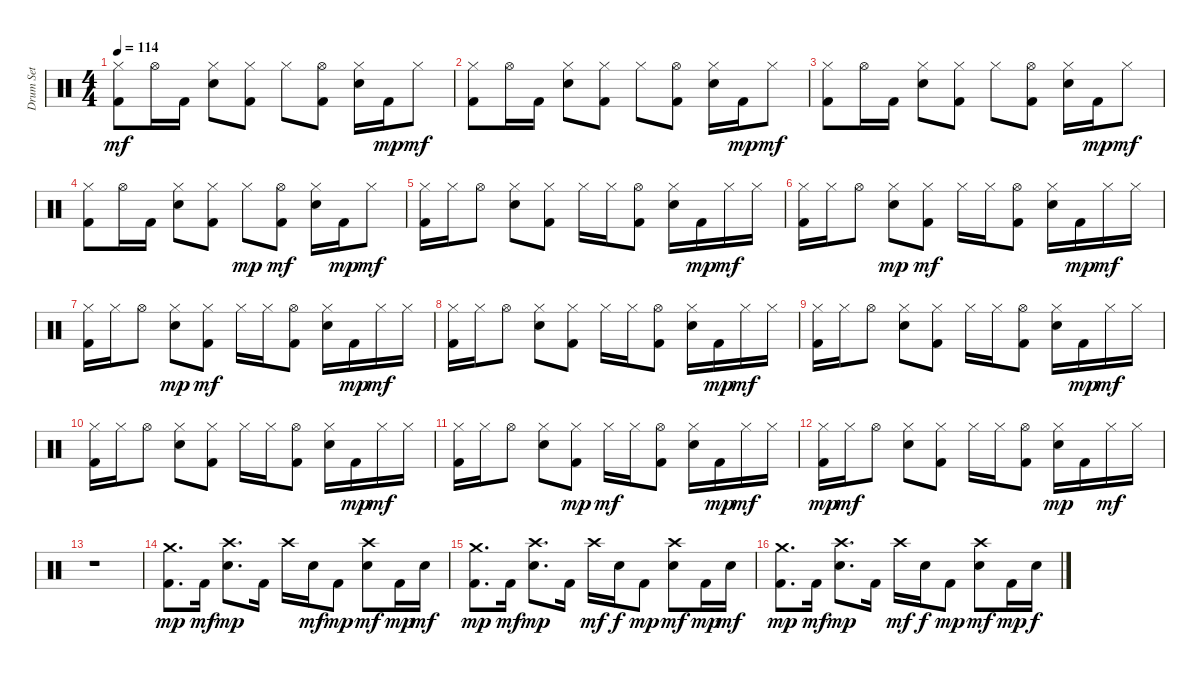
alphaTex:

\track ("Drum Set" "Drum Set") {instrument percussion}
\staff {score}
\articulation defaults
\ts (4 4)
\tempo 114
\clef neutral
\ks c
("Kick (hit) 2" "Hi-Hat (closed)").8{dy mf} "Hi-Hat (open)".16 "Kick (hit) 2".16 ("Snare (hit) 2" "Hi-Hat (closed)").8 ("Kick (hit) 2" "Hi-Hat (closed)").8 "Hi-Hat (closed)".8 ("Kick (hit) 2" "Hi-Hat (open)").8 ("Snare (hit) 2" "Hi-Hat (closed)").16 "Kick (hit) 2".16{dy mp} "Hi-Hat (closed)".8{dy mf} |
("Kick (hit) 2" "Hi-Hat (closed)").8 "Hi-Hat (open)".16 "Kick (hit) 2".16 ("Snare (hit) 2" "Hi-Hat (closed)").8 ("Kick (hit) 2" "Hi-Hat (closed)").8 "Hi-Hat (closed)".8 ("Kick (hit) 2" "Hi-Hat (open)").8 ("Snare (hit) 2" "Hi-Hat (closed)").16 "Kick (hit) 2".16{dy mp} "Hi-Hat (closed)".8{dy mf} |
("Kick (hit) 2" "Hi-Hat (closed)").8 "Hi-Hat (open)".16 "Kick (hit) 2".16 ("Snare (hit) 2" "Hi-Hat (closed)").8 ("Kick (hit) 2" "Hi-Hat (closed)").8 "Hi-Hat (closed)".8 ("Kick (hit) 2" "Hi-Hat (open)").8 ("Snare (hit) 2" "Hi-Hat (closed)").16 "Kick (hit) 2".16{dy mp} "Hi-Hat (closed)".8{dy mf} |
("Kick (hit) 2" "Hi-Hat (closed)").8 "Hi-Hat (open)".16 "Kick (hit) 2".16 ("Snare (hit) 2" "Hi-Hat (closed)").8 ("Kick (hit) 2" "Hi-Hat (closed)").8 "Hi-Hat (closed)".8{dy mp} ("Kick (hit) 2" "Hi-Hat (open)").8{dy mf} ("Snare (hit) 2" "Hi-Hat (closed)").16 "Kick (hit) 2".16{dy mp} "Hi-Hat (closed)".8{dy mf} |
("Kick (hit) 2" "Hi-Hat (closed)").16 "Hi-Hat (closed)".16 "Hi-Hat (open)".8 ("Snare (hit) 2" "Hi-Hat (closed)").8 ("Kick (hit) 2" "Hi-Hat (closed)").8 "Hi-Hat (closed)".16 "Hi-Hat (closed)".16 ("Kick (hit) 2" "Hi-Hat (open)").8 ("Snare (hit) 2" "Hi-Hat (closed)").16 "Kick (hit) 2".16{dy mp} "Hi-Hat (closed)".16{dy mf} "Hi-Hat (closed)".16 |
("Kick (hit) 2" "Hi-Hat (closed)").16 "Hi-Hat (closed)".16 "Hi-Hat (open)".8 ("Snare (hit) 2" "Hi-Hat (closed)").8{dy mp} ("Kick (hit) 2" "Hi-Hat (closed)").8{dy mf} "Hi-Hat (closed)".16 "Hi-Hat (closed)".16 ("Kick (hit) 2" "Hi-Hat (open)").8 ("Snare (hit) 2" "Hi-Hat (closed)").16 "Kick (hit) 2".16{dy mp} "Hi-Hat (closed)".16{dy mf} "Hi-Hat (closed)".16 |
("Kick (hit) 2" "Hi-Hat (closed)").16 "Hi-Hat (closed)".16 "Hi-Hat (open)".8 ("Snare (hit) 2" "Hi-Hat (closed)").8{dy mp} ("Kick (hit) 2" "Hi-Hat (closed)").8{dy mf} "Hi-Hat (closed)".16 "Hi-Hat (closed)".16 ("Kick (hit) 2" "Hi-Hat (open)").8 ("Snare (hit) 2" "Hi-Hat (closed)").16 "Kick (hit) 2".16{dy mp} "Hi-Hat (closed)".16{dy mf} "Hi-Hat (closed)".16 |
("Kick (hit) 2" "Hi-Hat (closed)").16 "Hi-Hat (closed)".16 "Hi-Hat (open)".8 ("Snare (hit) 2" "Hi-Hat (closed)").8 ("Kick (hit) 2" "Hi-Hat (closed)").8 "Hi-Hat (closed)".16 "Hi-Hat (closed)".16 ("Kick (hit) 2" "Hi-Hat (open)").8 ("Snare (hit) 2" "Hi-Hat (closed)").16 "Kick (hit) 2".16{dy mp} "Hi-Hat (closed)".16{dy mf} "Hi-Hat (closed)".16 |
("Kick (hit) 2" "Hi-Hat (closed)").16 "Hi-Hat (closed)".16 "Hi-Hat (open)".8 ("Snare (hit) 2" "Hi-Hat (closed)").8 ("Kick (hit) 2" "Hi-Hat (closed)").8 "Hi-Hat (closed)".16 "Hi-Hat (closed)".16 ("Kick (hit) 2" "Hi-Hat (open)").8 ("Snare (hit) 2" "Hi-Hat (closed)").16 "Kick (hit) 2".16{dy mp} "Hi-Hat (closed)".16{dy mf} "Hi-Hat (closed)".16 |
("Kick (hit) 2" "Hi-Hat (closed)").16 "Hi-Hat (closed)".16 "Hi-Hat (open)".8 ("Snare (hit) 2" "Hi-Hat (closed)").8 ("Kick (hit) 2" "Hi-Hat (closed)").8 "Hi-Hat (closed)".16 "Hi-Hat (closed)".16 ("Kick (hit) 2" "Hi-Hat (open)").8 ("Snare (hit) 2" "Hi-Hat (closed)").16 "Kick (hit) 2".16{dy mp} "Hi-Hat (closed)".16{dy mf} "Hi-Hat (closed)".16 |
("Kick (hit) 2" "Hi-Hat (closed)").16 "Hi-Hat (closed)".16 "Hi-Hat (open)".8 ("Snare (hit) 2" "Hi-Hat (closed)").8 ("Kick (hit) 2" "Hi-Hat (closed)").8{dy mp} "Hi-Hat (closed)".16{dy mf} "Hi-Hat (closed)".16 ("Kick (hit) 2" "Hi-Hat (open)").8 ("Snare (hit) 2" "Hi-Hat (closed)").16 "Kick (hit) 2".16{dy mp} "Hi-Hat (closed)".16{dy mf} "Hi-Hat (closed)".16 |
("Kick (hit) 2" "Hi-Hat (closed)").16{dy mp} "Hi-Hat (closed)".16{dy mf} "Hi-Hat (open)".8 ("Snare (hit) 2" "Hi-Hat (closed)").8 ("Kick (hit) 2" "Hi-Hat (closed)").8 "Hi-Hat (closed)".16 "Hi-Hat (closed)".16 ("Kick (hit) 2" "Hi-Hat (open)").8 ("Snare (hit) 2" "Hi-Hat (closed)").16{dy mp} "Kick (hit) 2".16 "Hi-Hat (closed)".16{dy mf} "Hi-Hat (closed)".16 |
r.1 |
("Kick (hit) 2" "Crash medium (hit)").8{d dy mp} "Kick (hit) 2".16{dy mf} ("Snare (hit) 2" "Crash high (hit)").8{d dy mp} "Kick (hit) 2".16 "Crash high (hit)".16 "Snare (hit) 2".16{dy mf} "Kick (hit) 2".8{dy mp} ("Snare (hit) 2" "Crash high (hit)").8{dy mf} "Kick (hit) 2".16{dy mp} "Snare (hit) 2".16{dy mf} |
("Kick (hit) 2" "Crash medium (hit)").8{d dy mp} "Kick (hit) 2".16{dy mf} ("Snare (hit) 2" "Crash high (hit)").8{d dy mp} "Kick (hit) 2".16 "Crash high (hit)".16{dy mf} "Snare (hit) 2".16{dy f} "Kick (hit) 2".8{dy mp} ("Snare (hit) 2" "Crash high (hit)").8{dy mf} "Kick (hit) 2".16{dy mp} "Snare (hit) 2".16{dy mf} |
("Kick (hit) 2" "Crash medium (hit)").8{d dy mp} "Kick (hit) 2".16{dy mf} ("Snare (hit) 2" "Crash high (hit)").8{d dy mp} "Kick (hit) 2".16 "Crash high (hit)".16{dy mf} "Snare (hit) 2".16{dy f} "Kick (hit) 2".8{dy mp} ("Snare (hit) 2" "Crash high (hit)").8{dy mf} "Kick (hit) 2".16{dy mp} "Snare (hit) 2".16{dy f}
